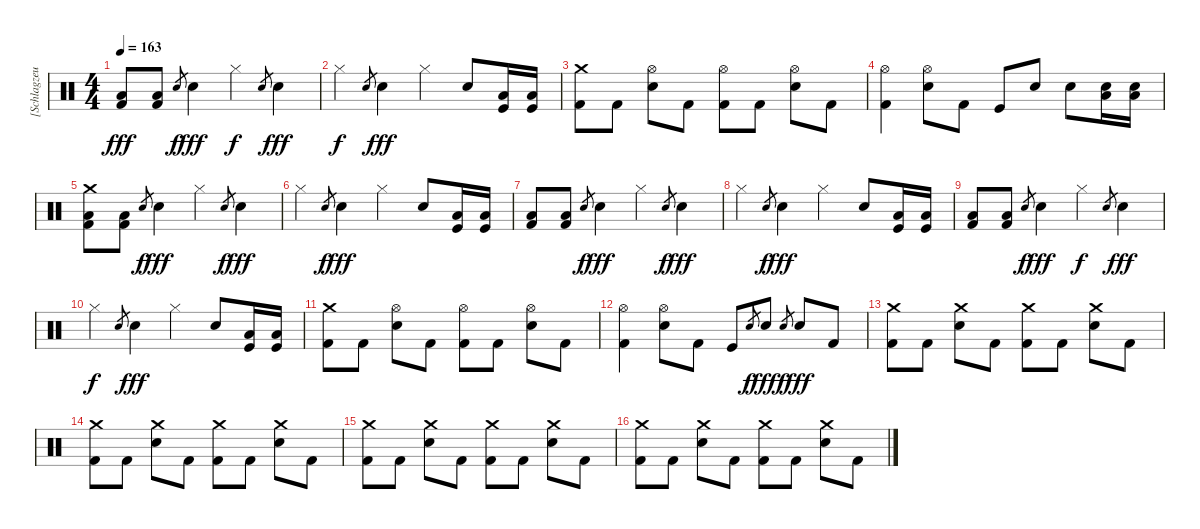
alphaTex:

\track ("[Schlagzeug]" "[Schlagzeu") {instrument percussion}
\staff {score}
\articulation defaults
\ts (4 4)
\tempo 163
\clef neutral
\ks c
("Low Floor Tom (hit)" "Kick (hit) 2").8{dy fff} ("Low Floor Tom (hit)" "Kick (hit) 2").8 "Electric Snare (hit)".8{gr dy f} "Electric Snare (hit)".4{dy fff} "Hi-Hat (closed)".4{dy f} "Electric Snare (hit)".8{gr} "Electric Snare (hit)".4{dy fff} |
"Hi-Hat (closed)".4{dy f} "Electric Snare (hit)".8{gr} "Electric Snare (hit)".4{dy fff} "Hi-Hat (closed)".4 "Electric Snare (hit)".8 ("Kick (hit)" "Low Floor Tom (hit)").16 ("Kick (hit)" "Low Floor Tom (hit)").16 |
("Crash medium (hit)" "Kick (hit) 2").8 "Kick (hit) 2".8 ("Hi-Hat (open)" "Electric Snare (hit)").8 "Kick (hit) 2".8 ("Hi-Hat (open)" "Kick (hit) 2").8 "Kick (hit) 2".8 ("Hi-Hat (open)" "Electric Snare (hit)").8 "Kick (hit) 2".8 |
("Hi-Hat (open)" "Kick (hit) 2").4 ("Hi-Hat (open)" "Electric Snare (hit)").8 "Kick (hit) 2".8 "Kick (hit)".8 "Electric Snare (hit)".8 "Electric Snare (hit)".8 ("Electric Snare (hit)" "Low Floor Tom (hit)").16 ("Electric Snare (hit)" "Low Floor Tom (hit)").16 |
("Crash medium (hit)" "Low Floor Tom (hit)" "Kick (hit) 2").8 ("Low Floor Tom (hit)" "Kick (hit) 2").8 "Electric Snare (hit)".8{gr dy f} "Electric Snare (hit)".4{dy fff} "Hi-Hat (closed)".4 "Electric Snare (hit)".8{gr dy f} "Electric Snare (hit)".4{dy fff} |
"Hi-Hat (closed)".4 "Electric Snare (hit)".8{gr dy f} "Electric Snare (hit)".4{dy fff} "Hi-Hat (closed)".4 "Electric Snare (hit)".8 ("Kick (hit)" "Low Floor Tom (hit)").16 ("Kick (hit)" "Low Floor Tom (hit)").16 |
("Low Floor Tom (hit)" "Kick (hit) 2").8 ("Low Floor Tom (hit)" "Kick (hit) 2").8 "Electric Snare (hit)".8{gr dy f} "Electric Snare (hit)".4{dy fff} "Hi-Hat (closed)".4 "Electric Snare (hit)".8{gr dy f} "Electric Snare (hit)".4{dy fff} |
"Hi-Hat (closed)".4 "Electric Snare (hit)".8{gr dy f} "Electric Snare (hit)".4{dy fff} "Hi-Hat (closed)".4 "Electric Snare (hit)".8 ("Kick (hit)" "Low Floor Tom (hit)").16 ("Kick (hit)" "Low Floor Tom (hit)").16 |
("Low Floor Tom (hit)" "Kick (hit) 2").8 ("Low Floor Tom (hit)" "Kick (hit) 2").8 "Electric Snare (hit)".8{gr dy f} "Electric Snare (hit)".4{dy fff} "Hi-Hat (closed)".4{dy f} "Electric Snare (hit)".8{gr} "Electric Snare (hit)".4{dy fff} |
"Hi-Hat (closed)".4{dy f} "Electric Snare (hit)".8{gr} "Electric Snare (hit)".4{dy fff} "Hi-Hat (closed)".4 "Electric Snare (hit)".8 ("Kick (hit)" "Low Floor Tom (hit)").16 ("Kick (hit)" "Low Floor Tom (hit)").16 |
("Crash medium (hit)" "Kick (hit) 2").8 "Kick (hit) 2".8 ("Hi-Hat (open)" "Electric Snare (hit)").8 "Kick (hit) 2".8 ("Hi-Hat (open)" "Kick (hit) 2").8 "Kick (hit) 2".8 ("Hi-Hat (open)" "Electric Snare (hit)").8 "Kick (hit) 2".8 |
("Hi-Hat (open)" "Kick (hit) 2").4 ("Hi-Hat (open)" "Electric Snare (hit)").8 "Kick (hit) 2".8 "Kick (hit)".8 "Electric Snare (hit)".8{gr dy f} "Electric Snare (hit)".8{dy fff} "Electric Snare (hit)".8{gr dy f} "Electric Snare (hit)".8{dy fff} "Kick (hit) 2".8 |
("Crash medium (hit)" "Kick (hit) 2").8 "Kick (hit) 2".8 ("Crash medium (hit)" "Electric Snare (hit)").8 "Kick (hit) 2".8 ("Crash medium (hit)" "Kick (hit) 2").8 "Kick (hit) 2".8 ("Crash medium (hit)" "Electric Snare (hit)").8 "Kick (hit) 2".8 |
("Crash medium (hit)" "Kick (hit) 2").8 "Kick (hit) 2".8 ("Crash medium (hit)" "Electric Snare (hit)").8 "Kick (hit) 2".8 ("Crash medium (hit)" "Kick (hit) 2").8 "Kick (hit) 2".8 ("Crash medium (hit)" "Electric Snare (hit)").8 "Kick (hit) 2".8 |
("Crash medium (hit)" "Kick (hit) 2").8 "Kick (hit) 2".8 ("Crash medium (hit)" "Electric Snare (hit)").8 "Kick (hit) 2".8 ("Crash medium (hit)" "Kick (hit) 2").8 "Kick (hit) 2".8 ("Crash medium (hit)" "Electric Snare (hit)").8 "Kick (hit) 2".8 |
("Crash medium (hit)" "Kick (hit) 2").8 "Kick (hit) 2".8 ("Crash medium (hit)" "Electric Snare (hit)").8 "Kick (hit) 2".8 ("Crash medium (hit)" "Kick (hit) 2").8 "Kick (hit) 2".8 ("Crash medium (hit)" "Electric Snare (hit)").8 "Kick (hit) 2".8
